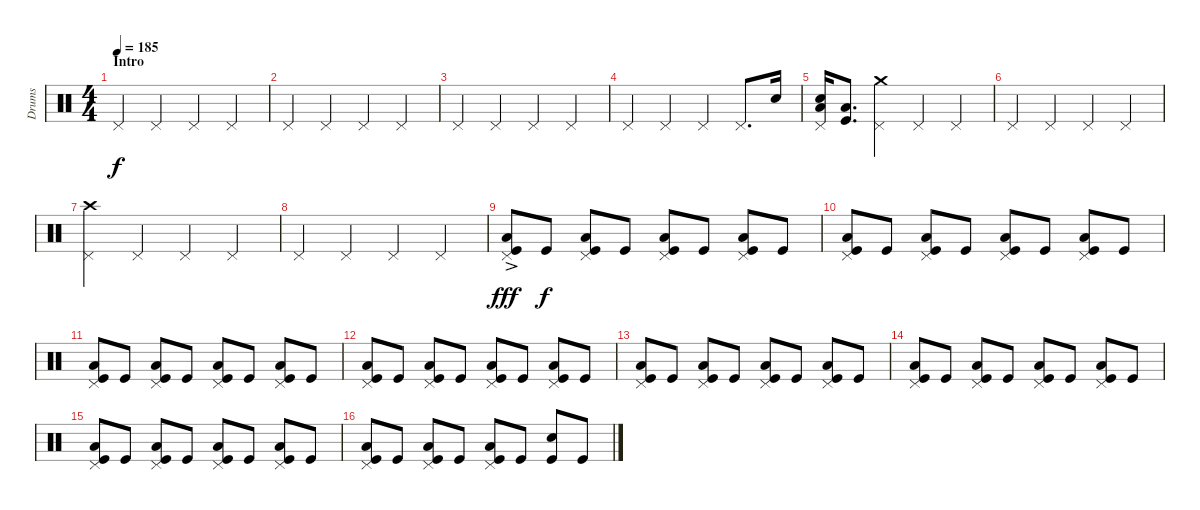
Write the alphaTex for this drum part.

\track ("Drums" "Drums") {instrument percussion}
\staff {score}
\articulation defaults
\ts (4 4)
\section ("" "Intro")
\tempo 185
\clef neutral
\ks c "Pedal Hi-Hat (hit)".4{dy f} "Pedal Hi-Hat (hit)".4 "Pedal Hi-Hat (hit)".4 "Pedal Hi-Hat (hit)".4
|
"Pedal Hi-Hat (hit)".4 "Pedal Hi-Hat (hit)".4 "Pedal Hi-Hat (hit)".4 "Pedal Hi-Hat (hit)".4 |
"Pedal Hi-Hat (hit)".4 "Pedal Hi-Hat (hit)".4 "Pedal Hi-Hat (hit)".4 "Pedal Hi-Hat (hit)".4 |
"Pedal Hi-Hat (hit)".4 "Pedal Hi-Hat (hit)".4 "Pedal Hi-Hat (hit)".4 "Pedal Hi-Hat (hit)".8{d} "Snare (hit) 2".16 |
("Pedal Hi-Hat (hit)" "Snare (hit) 2" "Low Tom (hit)").16 ("Low Tom (hit)" "Kick (hit)").8{d} ("Pedal Hi-Hat (hit)" "Crash medium (hit)").4 "Pedal Hi-Hat (hit)".4 "Pedal Hi-Hat (hit)".4 |
"Pedal Hi-Hat (hit)".4 "Pedal Hi-Hat (hit)".4 "Pedal Hi-Hat (hit)".4 "Pedal Hi-Hat (hit)".4 |
("Pedal Hi-Hat (hit)" "Crash high (hit)").4 "Pedal Hi-Hat (hit)".4 "Pedal Hi-Hat (hit)".4 "Pedal Hi-Hat (hit)".4 |
"Pedal Hi-Hat (hit)".4 "Pedal Hi-Hat (hit)".4 "Pedal Hi-Hat (hit)".4 "Pedal Hi-Hat (hit)".4 |
("Pedal Hi-Hat (hit)" "Low Tom (hit)" "Kick (hit)"{ac}).8{dy fff volume 16} "Kick (hit)".8{dy f volume 5} ("Pedal Hi-Hat (hit)" "Low Tom (hit)" "Kick (hit)").8 "Kick (hit)".8{volume 2} ("Pedal Hi-Hat (hit)" "Low Tom (hit)" "Kick (hit)").8 "Kick (hit)".8 ("Pedal Hi-Hat (hit)" "Low Tom (hit)" "Kick (hit)").8 "Kick (hit)".8 |
("Pedal Hi-Hat (hit)" "Low Tom (hit)" "Kick (hit)").8{volume 2} "Kick (hit)".8 ("Pedal Hi-Hat (hit)" "Low Tom (hit)" "Kick (hit)").8 "Kick (hit)".8 ("Pedal Hi-Hat (hit)" "Low Tom (hit)" "Kick (hit)").8{volume 4} "Kick (hit)".8 ("Pedal Hi-Hat (hit)" "Low Tom (hit)" "Kick (hit)").8 "Kick (hit)".8 |
("Pedal Hi-Hat (hit)" "Low Tom (hit)" "Kick (hit)").8{volume 7} "Kick (hit)".8 ("Pedal Hi-Hat (hit)" "Low Tom (hit)" "Kick (hit)").8 "Kick (hit)".8 ("Pedal Hi-Hat (hit)" "Low Tom (hit)" "Kick (hit)").8{volume 8} "Kick (hit)".8 ("Pedal Hi-Hat (hit)" "Low Tom (hit)" "Kick (hit)").8 "Kick (hit)".8 |
("Pedal Hi-Hat (hit)" "Low Tom (hit)" "Kick (hit)").8{volume 9} "Kick (hit)".8 ("Pedal Hi-Hat (hit)" "Low Tom (hit)" "Kick (hit)").8 "Kick (hit)".8 ("Pedal Hi-Hat (hit)" "Low Tom (hit)" "Kick (hit)").8 "Kick (hit)".8 ("Pedal Hi-Hat (hit)" "Low Tom (hit)" "Kick (hit)").8 "Kick (hit)".8 |
("Pedal Hi-Hat (hit)" "Low Tom (hit)" "Kick (hit)").8{volume 8} "Kick (hit)".8 ("Pedal Hi-Hat (hit)" "Low Tom (hit)" "Kick (hit)").8 "Kick (hit)".8 ("Pedal Hi-Hat (hit)" "Low Tom (hit)" "Kick (hit)").8 "Kick (hit)".8 ("Pedal Hi-Hat (hit)" "Low Tom (hit)" "Kick (hit)").8 "Kick (hit)".8 |
("Pedal Hi-Hat (hit)" "Low Tom (hit)" "Kick (hit)").8{volume 14} "Kick (hit)".8 ("Pedal Hi-Hat (hit)" "Low Tom (hit)" "Kick (hit)").8 "Kick (hit)".8 ("Pedal Hi-Hat (hit)" "Low Tom (hit)" "Kick (hit)").8 "Kick (hit)".8 ("Pedal Hi-Hat (hit)" "Low Tom (hit)" "Kick (hit)").8 "Kick (hit)".8 |
("Pedal Hi-Hat (hit)" "Low Tom (hit)" "Kick (hit)").8{volume 16} "Kick (hit)".8 ("Pedal Hi-Hat (hit)" "Low Tom (hit)" "Kick (hit)").8 "Kick (hit)".8 ("Pedal Hi-Hat (hit)" "Low Tom (hit)" "Kick (hit)").8 "Kick (hit)".8 ("Pedal Hi-Hat (hit)" "Low Tom (hit)" "Kick (hit)").8 "Kick (hit)".8 |
("Pedal Hi-Hat (hit)" "Low Tom (hit)" "Kick (hit)").8 "Kick (hit)".8 ("Pedal Hi-Hat (hit)" "Low Tom (hit)" "Kick (hit)").8 "Kick (hit)".8 ("Pedal Hi-Hat (hit)" "Low Tom (hit)" "Kick (hit)").8 "Kick (hit)".8 ("Snare (hit) 2" "Kick (hit)").8 "Kick (hit)".8
